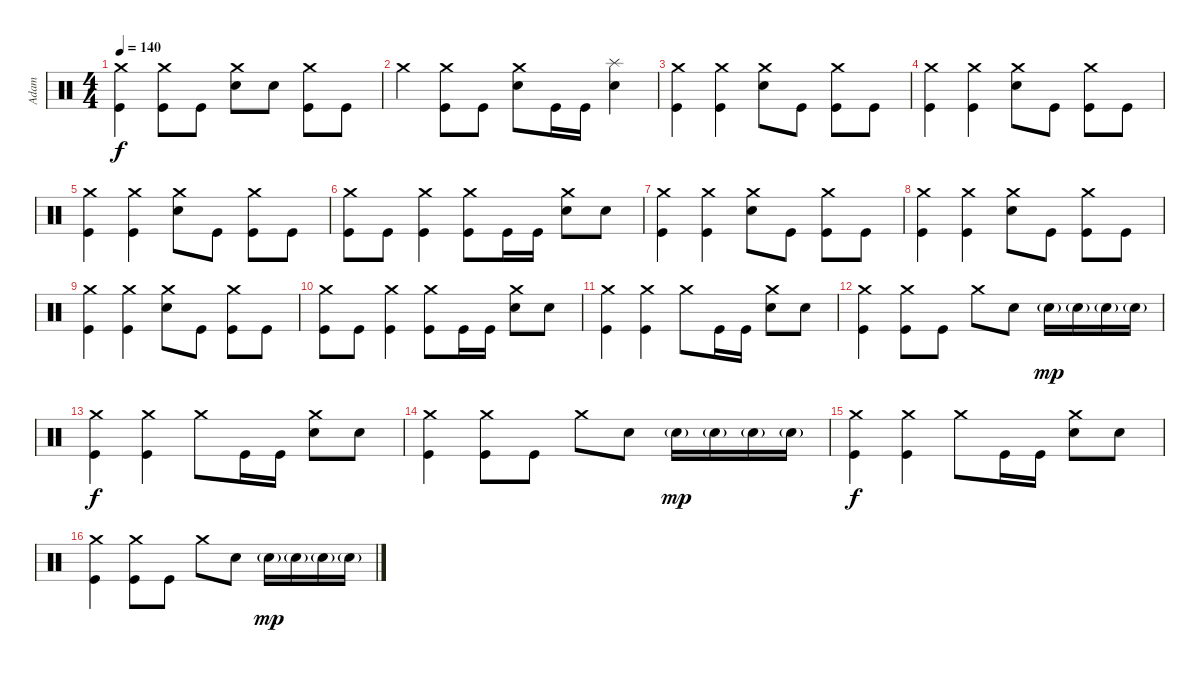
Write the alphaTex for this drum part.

\track ("Adam" "Adam") {instrument percussion}
\staff {score}
\articulation defaults
\ts (4 4)
\tempo 140
\clef neutral
\ks c
("Crash medium (hit)" "Kick (hit)").4{dy f} ("Crash medium (hit)" "Kick (hit)").8 "Kick (hit)".8 ("Crash medium (hit)" "Electric Snare (hit)").8 "Electric Snare (hit)".8 ("Crash medium (hit)" "Kick (hit)").8 "Kick (hit)".8 |
"Crash medium (hit)".4 ("Crash medium (hit)" "Kick (hit)").8 "Kick (hit)".8 ("Crash medium (hit)" "Electric Snare (hit)").8 "Kick (hit)".16 "Kick (hit)".16 ("Splash (hit)" "Electric Snare (hit)").4 |
("Crash medium (hit)" "Kick (hit)").4 ("Crash medium (hit)" "Kick (hit)").4 ("Crash medium (hit)" "Electric Snare (hit)").8 "Kick (hit)".8 ("Crash medium (hit)" "Kick (hit)").8 "Kick (hit)".8 |
("Crash medium (hit)" "Kick (hit)").4 ("Crash medium (hit)" "Kick (hit)").4 ("Crash medium (hit)" "Electric Snare (hit)").8 "Kick (hit)".8 ("Crash medium (hit)" "Kick (hit)").8 "Kick (hit)".8 |
("Crash medium (hit)" "Kick (hit)").4 ("Crash medium (hit)" "Kick (hit)").4 ("Crash medium (hit)" "Electric Snare (hit)").8 "Kick (hit)".8 ("Crash medium (hit)" "Kick (hit)").8 "Kick (hit)".8 |
("Crash medium (hit)" "Kick (hit)").8 "Kick (hit)".8 ("Crash medium (hit)" "Kick (hit)").4 ("Crash medium (hit)" "Kick (hit)").8 "Kick (hit)".16 "Kick (hit)".16 ("Crash medium (hit)" "Electric Snare (hit)").8 "Electric Snare (hit)".8 |
("Crash medium (hit)" "Kick (hit)").4 ("Crash medium (hit)" "Kick (hit)").4 ("Crash medium (hit)" "Electric Snare (hit)").8 "Kick (hit)".8 ("Crash medium (hit)" "Kick (hit)").8 "Kick (hit)".8 |
("Crash medium (hit)" "Kick (hit)").4 ("Crash medium (hit)" "Kick (hit)").4 ("Crash medium (hit)" "Electric Snare (hit)").8 "Kick (hit)".8 ("Crash medium (hit)" "Kick (hit)").8 "Kick (hit)".8 |
("Crash medium (hit)" "Kick (hit)").4 ("Crash medium (hit)" "Kick (hit)").4 ("Crash medium (hit)" "Electric Snare (hit)").8 "Kick (hit)".8 ("Crash medium (hit)" "Kick (hit)").8 "Kick (hit)".8 |
("Crash medium (hit)" "Kick (hit)").8 "Kick (hit)".8 ("Crash medium (hit)" "Kick (hit)").4 ("Crash medium (hit)" "Kick (hit)").8 "Kick (hit)".16 "Kick (hit)".16 ("Crash medium (hit)" "Electric Snare (hit)").8 "Electric Snare (hit)".8 |
("Crash medium (hit)" "Kick (hit)").4 ("Crash medium (hit)" "Kick (hit)").4 "Crash medium (hit)".8 "Kick (hit)".16 "Kick (hit)".16 ("Crash medium (hit)" "Electric Snare (hit)").8 "Electric Snare (hit)".8 |
("Crash medium (hit)" "Kick (hit)").4 ("Crash medium (hit)" "Kick (hit)").8 "Kick (hit)".8 "Crash medium (hit)".8 "Electric Snare (hit)".8 "Electric Snare (hit)"{g}.16{dy mp} "Electric Snare (hit)"{g}.16 "Electric Snare (hit)"{g}.16 "Electric Snare (hit)"{g}.16 |
("Crash medium (hit)" "Kick (hit)").4{dy f} ("Crash medium (hit)" "Kick (hit)").4 "Crash medium (hit)".8 "Kick (hit)".16 "Kick (hit)".16 ("Crash medium (hit)" "Electric Snare (hit)").8 "Electric Snare (hit)".8 |
("Crash medium (hit)" "Kick (hit)").4 ("Crash medium (hit)" "Kick (hit)").8 "Kick (hit)".8 "Crash medium (hit)".8 "Electric Snare (hit)".8 "Electric Snare (hit)"{g}.16{dy mp} "Electric Snare (hit)"{g}.16 "Electric Snare (hit)"{g}.16 "Electric Snare (hit)"{g}.16 |
("Crash medium (hit)" "Kick (hit)").4{dy f} ("Crash medium (hit)" "Kick (hit)").4 "Crash medium (hit)".8 "Kick (hit)".16 "Kick (hit)".16 ("Crash medium (hit)" "Electric Snare (hit)").8 "Electric Snare (hit)".8 |
("Crash medium (hit)" "Kick (hit)").4 ("Crash medium (hit)" "Kick (hit)").8 "Kick (hit)".8 "Crash medium (hit)".8 "Electric Snare (hit)".8 "Electric Snare (hit)"{g}.16{dy mp} "Electric Snare (hit)"{g}.16 "Electric Snare (hit)"{g}.16 "Electric Snare (hit)"{g}.16
